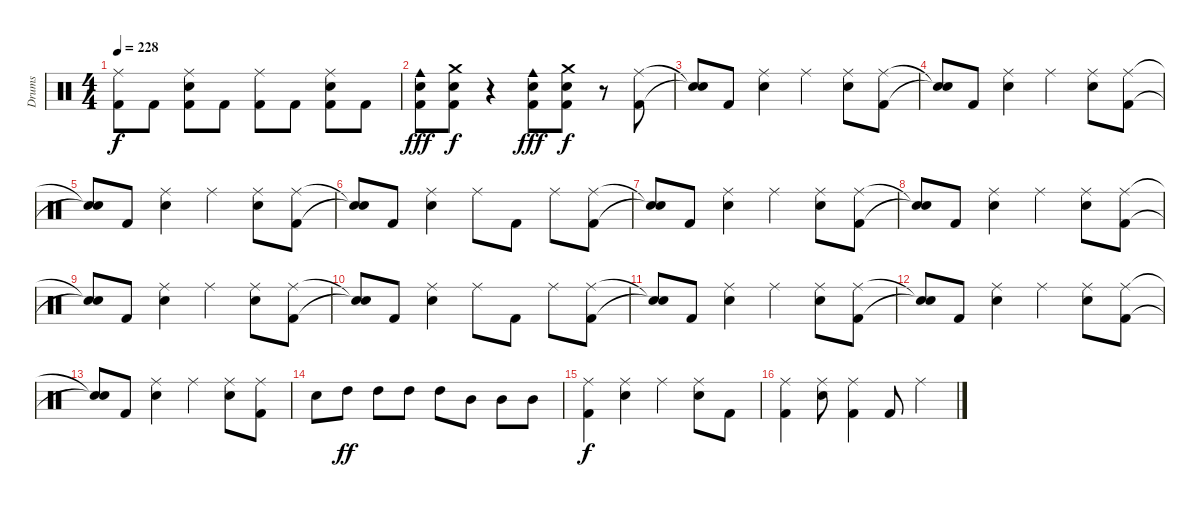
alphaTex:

\track ("Drums" "Drums") {instrument percussion}
\staff {score}
\articulation defaults
\ts (4 4)
\tempo 228
\clef neutral
\ks c
("Ride (middle)" "Kick (hit) 2").8{dy f} "Kick (hit) 2".8 ("Ride (middle)" "Electric Snare (hit)" "Kick (hit) 2").8 "Kick (hit) 2".8 ("Ride (middle)" "Kick (hit) 2").8 "Kick (hit) 2".8 ("Ride (middle)" "Electric Snare (hit)" "Kick (hit) 2").8 "Kick (hit) 2".8 |
("Cowbell medium (hit)" "Electric Snare (hit)" "Kick (hit) 2").8{dy fff} ("Crash medium (hit)" "Electric Snare (hit)" "Kick (hit) 2").8{dy f} r.4 ("Cowbell medium (hit)" "Electric Snare (hit)" "Kick (hit) 2").8{dy fff} ("Crash medium (hit)" "Electric Snare (hit)" "Kick (hit) 2").8{dy f} r.8 ("Ride (middle)" "Kick (hit) 2").8 |
("Snare (hit)"{t} "Snare (hit)"{t}).8 "Kick (hit) 2".8 ("Ride (middle)" "Electric Snare (hit)").4 "Ride (middle)".4 ("Ride (middle)" "Electric Snare (hit)").8 ("Ride (middle)" "Kick (hit) 2").8 |
("Snare (hit)"{t} "Snare (hit)"{t}).8 "Kick (hit) 2".8 ("Ride (middle)" "Electric Snare (hit)").4 "Ride (middle)".4 ("Ride (middle)" "Electric Snare (hit)").8 ("Ride (middle)" "Kick (hit) 2").8 |
("Snare (hit)"{t} "Snare (hit)"{t}).8 "Kick (hit) 2".8 ("Ride (middle)" "Electric Snare (hit)").4 "Ride (middle)".4 ("Ride (middle)" "Electric Snare (hit)").8 ("Ride (middle)" "Kick (hit) 2").8 |
("Snare (hit)"{t} "Snare (hit)"{t}).8 "Kick (hit) 2".8 ("Ride (middle)" "Electric Snare (hit)").4 "Ride (middle)".8 "Kick (hit) 2".8 "Ride (middle)".8 ("Ride (middle)" "Kick (hit) 2").8 |
("Snare (hit)"{t} "Snare (hit)"{t}).8 "Kick (hit) 2".8 ("Ride (middle)" "Electric Snare (hit)").4 "Ride (middle)".4 ("Ride (middle)" "Electric Snare (hit)").8 ("Ride (middle)" "Kick (hit) 2").8 |
("Snare (hit)"{t} "Snare (hit)"{t}).8 "Kick (hit) 2".8 ("Ride (middle)" "Electric Snare (hit)").4 "Ride (middle)".4 ("Ride (middle)" "Electric Snare (hit)").8 ("Ride (middle)" "Kick (hit) 2").8 |
("Snare (hit)"{t} "Snare (hit)"{t}).8 "Kick (hit) 2".8 ("Ride (middle)" "Electric Snare (hit)").4 "Ride (middle)".4 ("Ride (middle)" "Electric Snare (hit)").8 ("Ride (middle)" "Kick (hit) 2").8 |
("Snare (hit)"{t} "Snare (hit)"{t}).8 "Kick (hit) 2".8 ("Ride (middle)" "Electric Snare (hit)").4 "Ride (middle)".8 "Kick (hit) 2".8 "Ride (middle)".8 ("Ride (middle)" "Kick (hit) 2").8 |
("Snare (hit)"{t} "Snare (hit)"{t}).8 "Kick (hit) 2".8 ("Ride (middle)" "Electric Snare (hit)").4 "Ride (middle)".4 ("Ride (middle)" "Electric Snare (hit)").8 ("Ride (middle)" "Kick (hit) 2").8 |
("Snare (hit)"{t} "Snare (hit)"{t}).8 "Kick (hit) 2".8 ("Ride (middle)" "Electric Snare (hit)").4 "Ride (middle)".4 ("Ride (middle)" "Electric Snare (hit)").8 ("Ride (middle)" "Kick (hit) 2").8 |
("Snare (hit)"{t} "Snare (hit)"{t}).8 "Kick (hit) 2".8 ("Ride (middle)" "Electric Snare (hit)").4 "Ride (middle)".4 ("Ride (middle)" "Electric Snare (hit)").8 ("Ride (middle)" "Kick (hit) 2").8 |
"Electric Snare (hit)".8 "High Tom (hit)".8{dy ff} "High Tom (hit)".8 "High Tom (hit)".8 "High Tom (hit)".8 "Mid Tom (hit)".8 "Mid Tom (hit)".8 "Mid Tom (hit)".8 |
("Ride (middle)" "Kick (hit) 2").4{dy f} ("Ride (middle)" "Electric Snare (hit)").4 "Ride (middle)".4 ("Ride (middle)" "Electric Snare (hit)").8 "Kick (hit) 2".8 |
("Ride (middle)" "Kick (hit) 2").4 ("Ride (middle)" "Electric Snare (hit)").8 ("Ride (middle)" "Kick (hit) 2").4 "Kick (hit) 2".8 "Ride (middle)".4
